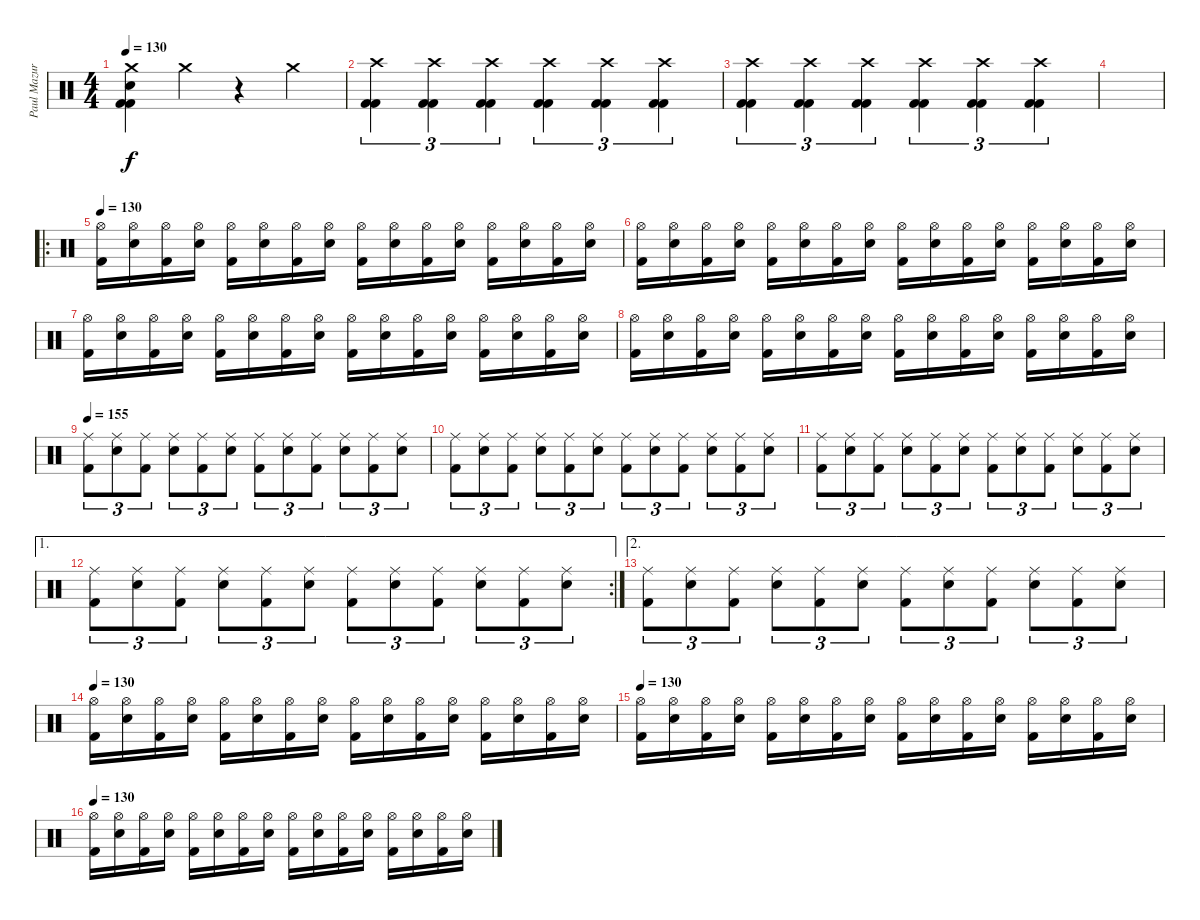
\track ("Paul Mazurkiewicz" "Paul Mazur") {instrument percussion}
\staff {score}
\articulation defaults
\ts (4 4)
\tempo 130
\clef neutral
\ks c
("Crash medium (hit)" "Snare (hit) 2" "Kick (hit) 2" "Kick (hit) 2").4{dy f} "Crash medium (hit)".4 r.4 "Crash medium (hit)".4 |
("Crash high (hit)" "Kick (hit) 2" "Kick (hit) 2").4{tu (3 2)} ("Crash high (hit)" "Kick (hit) 2" "Kick (hit) 2").4{tu (3 2)} ("Crash high (hit)" "Kick (hit) 2" "Kick (hit) 2").4{tu (3 2)} ("Crash high (hit)" "Kick (hit) 2" "Kick (hit) 2").4{tu (3 2)} ("Crash high (hit)" "Kick (hit) 2" "Kick (hit) 2").4{tu (3 2)} ("Crash high (hit)" "Kick (hit) 2" "Kick (hit) 2").4{tu (3 2)} |
("Crash high (hit)" "Kick (hit) 2" "Kick (hit) 2").4{tu (3 2)} ("Crash high (hit)" "Kick (hit) 2" "Kick (hit) 2").4{tu (3 2)} ("Crash high (hit)" "Kick (hit) 2" "Kick (hit) 2").4{tu (3 2)} ("Crash high (hit)" "Kick (hit) 2" "Kick (hit) 2").4{tu (3 2)} ("Crash high (hit)" "Kick (hit) 2" "Kick (hit) 2").4{tu (3 2)} ("Crash high (hit)" "Kick (hit) 2" "Kick (hit) 2").4{tu (3 2)} |
|
\ro
\tempo 130
("Hi-Hat (open)" "Kick (hit) 2").16 ("Hi-Hat (open)" "Snare (hit) 2").16 ("Hi-Hat (open)" "Kick (hit) 2").16 ("Hi-Hat (open)" "Snare (hit) 2").16 ("Hi-Hat (open)" "Kick (hit) 2").16 ("Hi-Hat (open)" "Snare (hit) 2").16 ("Hi-Hat (open)" "Kick (hit) 2").16 ("Hi-Hat (open)" "Snare (hit) 2").16 ("Hi-Hat (open)" "Kick (hit) 2").16 ("Hi-Hat (open)" "Snare (hit) 2").16 ("Hi-Hat (open)" "Kick (hit) 2").16 ("Hi-Hat (open)" "Snare (hit) 2").16 ("Hi-Hat (open)" "Kick (hit) 2").16 ("Hi-Hat (open)" "Snare (hit) 2").16 ("Hi-Hat (open)" "Kick (hit) 2").16 ("Hi-Hat (open)" "Snare (hit) 2").16 |
("Hi-Hat (open)" "Kick (hit) 2").16 ("Hi-Hat (open)" "Snare (hit) 2").16 ("Hi-Hat (open)" "Kick (hit) 2").16 ("Hi-Hat (open)" "Snare (hit) 2").16 ("Hi-Hat (open)" "Kick (hit) 2").16 ("Hi-Hat (open)" "Snare (hit) 2").16 ("Hi-Hat (open)" "Kick (hit) 2").16 ("Hi-Hat (open)" "Snare (hit) 2").16 ("Hi-Hat (open)" "Kick (hit) 2").16 ("Hi-Hat (open)" "Snare (hit) 2").16 ("Hi-Hat (open)" "Kick (hit) 2").16 ("Hi-Hat (open)" "Snare (hit) 2").16 ("Hi-Hat (open)" "Kick (hit) 2").16 ("Hi-Hat (open)" "Snare (hit) 2").16 ("Hi-Hat (open)" "Kick (hit) 2").16 ("Hi-Hat (open)" "Snare (hit) 2").16 |
("Hi-Hat (open)" "Kick (hit) 2").16 ("Hi-Hat (open)" "Snare (hit) 2").16 ("Hi-Hat (open)" "Kick (hit) 2").16 ("Hi-Hat (open)" "Snare (hit) 2").16 ("Hi-Hat (open)" "Kick (hit) 2").16 ("Hi-Hat (open)" "Snare (hit) 2").16 ("Hi-Hat (open)" "Kick (hit) 2").16 ("Hi-Hat (open)" "Snare (hit) 2").16 ("Hi-Hat (open)" "Kick (hit) 2").16 ("Hi-Hat (open)" "Snare (hit) 2").16 ("Hi-Hat (open)" "Kick (hit) 2").16 ("Hi-Hat (open)" "Snare (hit) 2").16 ("Hi-Hat (open)" "Kick (hit) 2").16 ("Hi-Hat (open)" "Snare (hit) 2").16 ("Hi-Hat (open)" "Kick (hit) 2").16 ("Hi-Hat (open)" "Snare (hit) 2").16 |
("Hi-Hat (open)" "Kick (hit) 2").16 ("Hi-Hat (open)" "Snare (hit) 2").16 ("Hi-Hat (open)" "Kick (hit) 2").16 ("Hi-Hat (open)" "Snare (hit) 2").16 ("Hi-Hat (open)" "Kick (hit) 2").16 ("Hi-Hat (open)" "Snare (hit) 2").16 ("Hi-Hat (open)" "Kick (hit) 2").16 ("Hi-Hat (open)" "Snare (hit) 2").16 ("Hi-Hat (open)" "Kick (hit) 2").16 ("Hi-Hat (open)" "Snare (hit) 2").16 ("Hi-Hat (open)" "Kick (hit) 2").16 ("Hi-Hat (open)" "Snare (hit) 2").16 ("Hi-Hat (open)" "Kick (hit) 2").16 ("Hi-Hat (open)" "Snare (hit) 2").16 ("Hi-Hat (open)" "Kick (hit) 2").16 ("Hi-Hat (open)" "Snare (hit) 2").16 |
\tempo 155
("Ride (middle)" "Kick (hit) 2").8{tu (3 2)} ("Ride (middle)" "Snare (hit) 2").8{tu (3 2)} ("Ride (middle)" "Kick (hit) 2").8{tu (3 2)} ("Ride (middle)" "Snare (hit) 2").8{tu (3 2)} ("Ride (middle)" "Kick (hit) 2").8{tu (3 2)} ("Ride (middle)" "Snare (hit) 2").8{tu (3 2)} ("Ride (middle)" "Kick (hit) 2").8{tu (3 2)} ("Ride (middle)" "Snare (hit) 2").8{tu (3 2)} ("Ride (middle)" "Kick (hit) 2").8{tu (3 2)} ("Ride (middle)" "Snare (hit) 2").8{tu (3 2)} ("Ride (middle)" "Kick (hit) 2").8{tu (3 2)} ("Ride (middle)" "Snare (hit) 2").8{tu (3 2)} |
("Ride (middle)" "Kick (hit) 2").8{tu (3 2)} ("Ride (middle)" "Snare (hit) 2").8{tu (3 2)} ("Ride (middle)" "Kick (hit) 2").8{tu (3 2)} ("Ride (middle)" "Snare (hit) 2").8{tu (3 2)} ("Ride (middle)" "Kick (hit) 2").8{tu (3 2)} ("Ride (middle)" "Snare (hit) 2").8{tu (3 2)} ("Ride (middle)" "Kick (hit) 2").8{tu (3 2)} ("Ride (middle)" "Snare (hit) 2").8{tu (3 2)} ("Ride (middle)" "Kick (hit) 2").8{tu (3 2)} ("Ride (middle)" "Snare (hit) 2").8{tu (3 2)} ("Ride (middle)" "Kick (hit) 2").8{tu (3 2)} ("Ride (middle)" "Snare (hit) 2").8{tu (3 2)} |
("Ride (middle)" "Kick (hit) 2").8{tu (3 2)} ("Ride (middle)" "Snare (hit) 2").8{tu (3 2)} ("Ride (middle)" "Kick (hit) 2").8{tu (3 2)} ("Ride (middle)" "Snare (hit) 2").8{tu (3 2)} ("Ride (middle)" "Kick (hit) 2").8{tu (3 2)} ("Ride (middle)" "Snare (hit) 2").8{tu (3 2)} ("Ride (middle)" "Kick (hit) 2").8{tu (3 2)} ("Ride (middle)" "Snare (hit) 2").8{tu (3 2)} ("Ride (middle)" "Kick (hit) 2").8{tu (3 2)} ("Ride (middle)" "Snare (hit) 2").8{tu (3 2)} ("Ride (middle)" "Kick (hit) 2").8{tu (3 2)} ("Ride (middle)" "Snare (hit) 2").8{tu (3 2)} |
\ae 1
\rc 2
("Ride (middle)" "Kick (hit) 2").8{tu (3 2)} ("Ride (middle)" "Snare (hit) 2").8{tu (3 2)} ("Ride (middle)" "Kick (hit) 2").8{tu (3 2)} ("Ride (middle)" "Snare (hit) 2").8{tu (3 2)} ("Ride (middle)" "Kick (hit) 2").8{tu (3 2)} ("Ride (middle)" "Snare (hit) 2").8{tu (3 2)} ("Ride (middle)" "Kick (hit) 2").8{tu (3 2)} ("Ride (middle)" "Snare (hit) 2").8{tu (3 2)} ("Ride (middle)" "Kick (hit) 2").8{tu (3 2)} ("Ride (middle)" "Snare (hit) 2").8{tu (3 2)} ("Ride (middle)" "Kick (hit) 2").8{tu (3 2)} ("Ride (middle)" "Snare (hit) 2").8{tu (3 2)} |
\ae 2
("Ride (middle)" "Kick (hit) 2").8{tu (3 2)} ("Ride (middle)" "Snare (hit) 2").8{tu (3 2)} ("Ride (middle)" "Kick (hit) 2").8{tu (3 2)} ("Ride (middle)" "Snare (hit) 2").8{tu (3 2)} ("Ride (middle)" "Kick (hit) 2").8{tu (3 2)} ("Ride (middle)" "Snare (hit) 2").8{tu (3 2)} ("Ride (middle)" "Kick (hit) 2").8{tu (3 2)} ("Ride (middle)" "Snare (hit) 2").8{tu (3 2)} ("Ride (middle)" "Kick (hit) 2").8{tu (3 2)} ("Ride (middle)" "Snare (hit) 2").8{tu (3 2)} ("Ride (middle)" "Kick (hit) 2").8{tu (3 2)} ("Ride (middle)" "Snare (hit) 2").8{tu (3 2)} |
\tempo 130
("Hi-Hat (open)" "Kick (hit) 2").16 ("Hi-Hat (open)" "Snare (hit) 2").16 ("Hi-Hat (open)" "Kick (hit) 2").16 ("Hi-Hat (open)" "Snare (hit) 2").16 ("Hi-Hat (open)" "Kick (hit) 2").16 ("Hi-Hat (open)" "Snare (hit) 2").16 ("Hi-Hat (open)" "Kick (hit) 2").16 ("Hi-Hat (open)" "Snare (hit) 2").16 ("Hi-Hat (open)" "Kick (hit) 2").16 ("Hi-Hat (open)" "Snare (hit) 2").16 ("Hi-Hat (open)" "Kick (hit) 2").16 ("Hi-Hat (open)" "Snare (hit) 2").16 ("Hi-Hat (open)" "Kick (hit) 2").16 ("Hi-Hat (open)" "Snare (hit) 2").16 ("Hi-Hat (open)" "Kick (hit) 2").16 ("Hi-Hat (open)" "Snare (hit) 2").16 |
\tempo 130
("Hi-Hat (open)" "Kick (hit) 2").16 ("Hi-Hat (open)" "Snare (hit) 2").16 ("Hi-Hat (open)" "Kick (hit) 2").16 ("Hi-Hat (open)" "Snare (hit) 2").16 ("Hi-Hat (open)" "Kick (hit) 2").16 ("Hi-Hat (open)" "Snare (hit) 2").16 ("Hi-Hat (open)" "Kick (hit) 2").16 ("Hi-Hat (open)" "Snare (hit) 2").16 ("Hi-Hat (open)" "Kick (hit) 2").16 ("Hi-Hat (open)" "Snare (hit) 2").16 ("Hi-Hat (open)" "Kick (hit) 2").16 ("Hi-Hat (open)" "Snare (hit) 2").16 ("Hi-Hat (open)" "Kick (hit) 2").16 ("Hi-Hat (open)" "Snare (hit) 2").16 ("Hi-Hat (open)" "Kick (hit) 2").16 ("Hi-Hat (open)" "Snare (hit) 2").16 |
\tempo 130
("Hi-Hat (open)" "Kick (hit) 2").16 ("Hi-Hat (open)" "Snare (hit) 2").16 ("Hi-Hat (open)" "Kick (hit) 2").16 ("Hi-Hat (open)" "Snare (hit) 2").16 ("Hi-Hat (open)" "Kick (hit) 2").16 ("Hi-Hat (open)" "Snare (hit) 2").16 ("Hi-Hat (open)" "Kick (hit) 2").16 ("Hi-Hat (open)" "Snare (hit) 2").16 ("Hi-Hat (open)" "Kick (hit) 2").16 ("Hi-Hat (open)" "Snare (hit) 2").16 ("Hi-Hat (open)" "Kick (hit) 2").16 ("Hi-Hat (open)" "Snare (hit) 2").16 ("Hi-Hat (open)" "Kick (hit) 2").16 ("Hi-Hat (open)" "Snare (hit) 2").16 ("Hi-Hat (open)" "Kick (hit) 2").16 ("Hi-Hat (open)" "Snare (hit) 2").16
